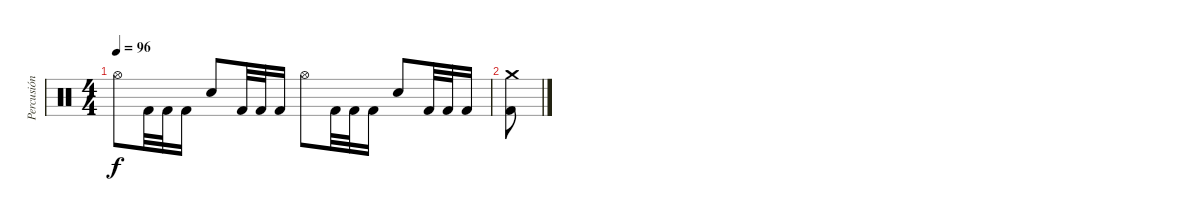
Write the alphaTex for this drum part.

\track ("Percusión" "Percusión") {instrument percussion}
\staff {score}
\articulation defaults
\ts (4 4)
\tempo 96
\clef neutral
\ks c "Hi-Hat (open)".8{dy f} "Kick (hit) 2".32 "Kick (hit) 2".32 "Kick (hit) 2".16 "Snare (hit) 2".8 "Kick (hit) 2".32 "Kick (hit) 2".32 "Kick (hit) 2".16 "Hi-Hat (open)".8 "Kick (hit) 2".32 "Kick (hit) 2".32 "Kick (hit) 2".16 "Snare (hit) 2".8 "Kick (hit) 2".32 "Kick (hit) 2".32 "Kick (hit) 2".16
|
("Crash medium (hit)" "Kick (hit) 2").8
